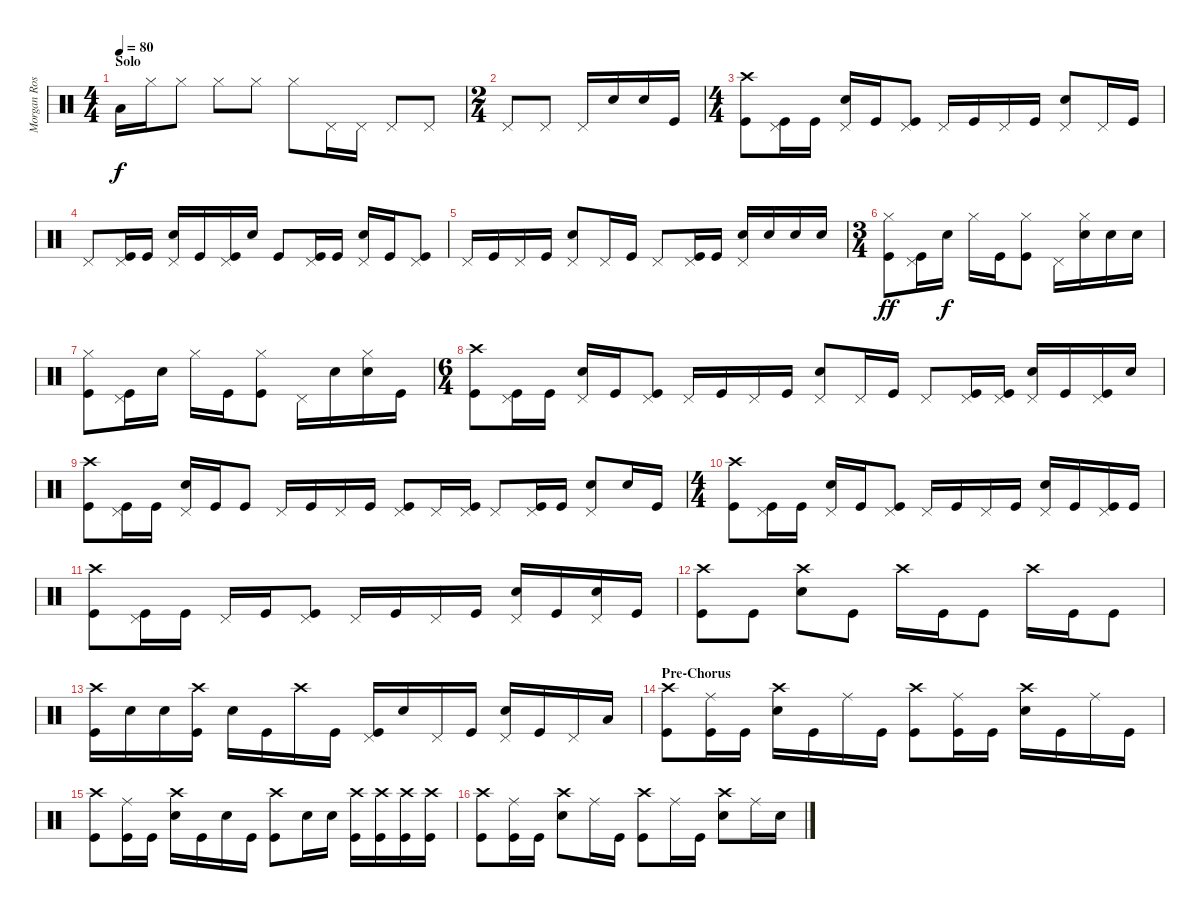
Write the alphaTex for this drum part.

\track ("Morgan Rose" "Morgan Ros") {instrument percussion}
\staff {score}
\articulation defaults
\ts (4 4)
\section ("" "Solo")
\tempo 80
\clef neutral
\ks c "Low Floor Tom (hit)".16{dy f} "Hi-Hat (closed)".16 "Hi-Hat (closed)".8 "Hi-Hat (closed)".8 "Hi-Hat (closed)".8 "Hi-Hat (closed)".8 "Pedal Hi-Hat (hit)".16 "Pedal Hi-Hat (hit)".16 "Pedal Hi-Hat (hit)".8 "Pedal Hi-Hat (hit)".8
|
\ts (2 4)
"Pedal Hi-Hat (hit)".8 "Pedal Hi-Hat (hit)".8 "Pedal Hi-Hat (hit)".16 "Snare (hit) 2".16 "Snare (hit) 2".16 "Kick (hit)".16 |
\ts (4 4)
("Crash high (hit)" "Kick (hit)").8 ("Pedal Hi-Hat (hit)" "Kick (hit)").16 "Kick (hit)".16 ("Pedal Hi-Hat (hit)" "Snare (hit) 2").16 "Kick (hit)".16 ("Pedal Hi-Hat (hit)" "Kick (hit)").8 "Pedal Hi-Hat (hit)".16 "Kick (hit)".16 "Pedal Hi-Hat (hit)".16 "Kick (hit)".16 ("Pedal Hi-Hat (hit)" "Snare (hit) 2").8 "Pedal Hi-Hat (hit)".16 "Kick (hit)".16 |
"Pedal Hi-Hat (hit)".8 ("Pedal Hi-Hat (hit)" "Kick (hit)").16 "Kick (hit)".16 ("Pedal Hi-Hat (hit)" "Snare (hit) 2").16 "Kick (hit)".16 ("Pedal Hi-Hat (hit)" "Kick (hit)").16 "Snare (hit) 2".16 "Kick (hit)".8 ("Pedal Hi-Hat (hit)" "Kick (hit)").16 "Kick (hit)".16 ("Pedal Hi-Hat (hit)" "Snare (hit) 2").16 "Kick (hit)".16 ("Pedal Hi-Hat (hit)" "Kick (hit)").8 |
"Pedal Hi-Hat (hit)".16 "Kick (hit)".16 "Pedal Hi-Hat (hit)".16 "Kick (hit)".16 ("Pedal Hi-Hat (hit)" "Snare (hit) 2").8 "Pedal Hi-Hat (hit)".16 "Kick (hit)".16 "Pedal Hi-Hat (hit)".8 ("Pedal Hi-Hat (hit)" "Kick (hit)").16 "Kick (hit)".16 ("Pedal Hi-Hat (hit)" "Snare (hit) 2").16 "Snare (hit) 2".16 "Snare (hit) 2".16 "Snare (hit) 2".16 |
\ts (3 4)
("Hi-Hat (closed)" "Kick (hit)").8{dy ff} ("Pedal Hi-Hat (hit)" "Kick (hit)").16 "Snare (hit) 2".16{dy f} "Hi-Hat (closed)".16 "Kick (hit)".16 ("Hi-Hat (closed)" "Kick (hit)").8 "Pedal Hi-Hat (hit)".16 ("Hi-Hat (closed)" "Snare (hit) 2").16 "Snare (hit) 2".16 "Snare (hit) 2".16 |
("Hi-Hat (closed)" "Kick (hit)").8 ("Pedal Hi-Hat (hit)" "Kick (hit)").16 "Snare (hit) 2".16 "Hi-Hat (closed)".16 "Kick (hit)".16 ("Hi-Hat (closed)" "Kick (hit)").8 "Pedal Hi-Hat (hit)".16 "Snare (hit) 2".16 ("Hi-Hat (closed)" "Snare (hit) 2").16 "Kick (hit)".16 |
\ts (6 4)
("Crash high (hit)" "Kick (hit)").8 ("Pedal Hi-Hat (hit)" "Kick (hit)").16 "Kick (hit)".16 ("Pedal Hi-Hat (hit)" "Snare (hit) 2").16 "Kick (hit)".16 ("Pedal Hi-Hat (hit)" "Kick (hit)").8 "Pedal Hi-Hat (hit)".16 "Kick (hit)".16 "Pedal Hi-Hat (hit)".16 "Kick (hit)".16 ("Pedal Hi-Hat (hit)" "Snare (hit) 2").8 "Pedal Hi-Hat (hit)".16 "Kick (hit)".16 "Pedal Hi-Hat (hit)".8 ("Pedal Hi-Hat (hit)" "Kick (hit)").16 ("Pedal Hi-Hat (hit)" "Kick (hit)").16 ("Pedal Hi-Hat (hit)" "Snare (hit) 2").16 "Kick (hit)".16 ("Pedal Hi-Hat (hit)" "Kick (hit)").16 "Snare (hit) 2".16 |
("Crash high (hit)" "Kick (hit)").8 ("Pedal Hi-Hat (hit)" "Kick (hit)").16 "Kick (hit)".16 ("Pedal Hi-Hat (hit)" "Snare (hit) 2").16 "Kick (hit)".16 "Kick (hit)".8 "Pedal Hi-Hat (hit)".16 "Kick (hit)".16 "Pedal Hi-Hat (hit)".16 "Kick (hit)".16 ("Pedal Hi-Hat (hit)" "Kick (hit)").8 "Pedal Hi-Hat (hit)".16 ("Pedal Hi-Hat (hit)" "Kick (hit)").16 "Pedal Hi-Hat (hit)".8 ("Pedal Hi-Hat (hit)" "Kick (hit)").16 "Kick (hit)".16 ("Pedal Hi-Hat (hit)" "Snare (hit) 2").8 "Snare (hit) 2".16 "Kick (hit)".16 |
\ts (4 4)
("Crash high (hit)" "Kick (hit)").8 ("Pedal Hi-Hat (hit)" "Kick (hit)").16 "Kick (hit)".16 ("Pedal Hi-Hat (hit)" "Snare (hit) 2").16 "Kick (hit)".16 ("Pedal Hi-Hat (hit)" "Kick (hit)").8 "Pedal Hi-Hat (hit)".16 "Kick (hit)".16 "Pedal Hi-Hat (hit)".16 "Kick (hit)".16 ("Pedal Hi-Hat (hit)" "Snare (hit) 2").16 "Kick (hit)".16 ("Pedal Hi-Hat (hit)" "Kick (hit)").16 "Kick (hit)".16 |
("Crash high (hit)" "Kick (hit)").8 ("Pedal Hi-Hat (hit)" "Kick (hit)").16 "Kick (hit)".16 "Pedal Hi-Hat (hit)".16 "Kick (hit)".16 ("Pedal Hi-Hat (hit)" "Kick (hit)").8 "Pedal Hi-Hat (hit)".16 "Kick (hit)".16 "Pedal Hi-Hat (hit)".16 "Kick (hit)".16 ("Pedal Hi-Hat (hit)" "Snare (hit) 2").16 "Kick (hit)".16 ("Pedal Hi-Hat (hit)" "Snare (hit) 2").16 "Kick (hit)".16 |
("Crash high (hit)" "Kick (hit)").8 "Kick (hit)".8 ("Crash high (hit)" "Snare (hit) 2").8 "Kick (hit)".8 "Crash high (hit)".16 "Kick (hit)".16 "Kick (hit)".8 "Crash high (hit)".16 "Kick (hit)".16 "Kick (hit)".8 |
("Crash high (hit)" "Kick (hit)").16 "Snare (hit) 2".16 "Snare (hit) 2".16 ("Crash high (hit)" "Kick (hit)").16 "Snare (hit) 2".16 "Kick (hit)".16 "Crash high (hit)".16 "Kick (hit)".16 ("Pedal Hi-Hat (hit)" "Kick (hit)").16 "Snare (hit) 2".16 "Pedal Hi-Hat (hit)".16 "Kick (hit)".16 ("Pedal Hi-Hat (hit)" "Snare (hit) 2").16 "Kick (hit)".16 "Pedal Hi-Hat (hit)".16 "Low Tom (hit)".16 |
\section ("" "Pre-Chorus")
("Crash high (hit)" "Kick (hit)").8 ("Ride (middle)" "Kick (hit)").16 "Kick (hit)".16 ("Crash high (hit)" "Snare (hit) 2").16 "Kick (hit)".16 "Ride (middle)".16 "Kick (hit)".16 ("Crash high (hit)" "Kick (hit)").8 ("Ride (middle)" "Kick (hit)").16 "Kick (hit)".16 ("Crash high (hit)" "Snare (hit) 2").16 "Kick (hit)".16 "Ride (middle)".16 "Kick (hit)".16 |
("Crash high (hit)" "Kick (hit)").8 ("Ride (middle)" "Kick (hit)").16 "Kick (hit)".16 ("Crash high (hit)" "Snare (hit) 2").16 "Kick (hit)".16 "Snare (hit) 2".16 "Kick (hit)".16 ("Crash high (hit)" "Kick (hit)").8 "Snare (hit) 2".16 "Snare (hit) 2".16 ("Crash high (hit)" "Kick (hit)").16 ("Crash high (hit)" "Kick (hit)").16 ("Crash high (hit)" "Kick (hit)").16 ("Crash high (hit)" "Kick (hit)").16 |
("Crash high (hit)" "Kick (hit)").8 ("Ride (middle)" "Kick (hit)").16 "Kick (hit)".16 ("Crash high (hit)" "Snare (hit) 2").8 "Ride (middle)".16 "Kick (hit)".16 ("Crash high (hit)" "Kick (hit)").8 "Ride (middle)".16 "Kick (hit)".16 ("Crash high (hit)" "Snare (hit) 2").8 "Ride (middle)".16 "Snare (hit) 2".16
